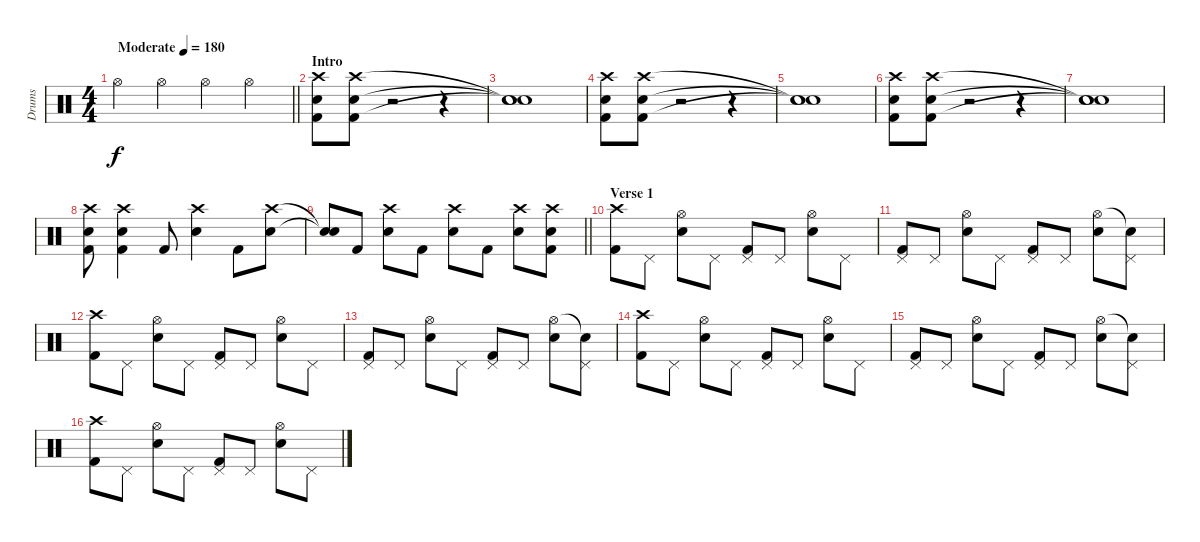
\track ("Drums" "Drums") {instrument percussion}
\staff {score}
\articulation defaults
\ts (4 4)
\tempo (180 "Moderate")
\clef neutral
\barLineRight lightlight
\ks c "Hi-Hat (open)".4{dy f} "Hi-Hat (open)".4 "Hi-Hat (open)".4 "Hi-Hat (open)".4
|
\section ("" "Intro")
("Crash high (hit)" "Snare (hit) 2" "Kick (hit) 2").8 ("Crash high (hit)" "Snare (hit) 2" "Kick (hit) 2").8 r.2 r.4 |
("Snare (hit)"{t} "Snare (hit)"{t} "Snare (hit)"{t}).1 |
("Crash high (hit)" "Snare (hit) 2" "Kick (hit) 2").8 ("Crash high (hit)" "Snare (hit) 2" "Kick (hit) 2").8 r.2 r.4 |
("Snare (hit)"{t} "Snare (hit)"{t} "Snare (hit)"{t}).1 |
("Crash high (hit)" "Snare (hit) 2" "Kick (hit) 2").8 ("Crash high (hit)" "Snare (hit) 2" "Kick (hit) 2").8 r.2 r.4 |
("Snare (hit)"{t} "Snare (hit)"{t} "Snare (hit)"{t}).1 |
("Crash high (hit)" "Snare (hit) 2" "Kick (hit) 2").8 ("Crash high (hit)" "Snare (hit) 2" "Kick (hit) 2").4 "Kick (hit) 2".8 ("Crash high (hit)" "Snare (hit) 2").4 "Kick (hit) 2".8 ("Crash high (hit)" "Snare (hit) 2").8 |
\barLineRight lightlight
("Snare (hit)"{t} "Snare (hit)"{t}).8 "Kick (hit) 2".8 ("Crash high (hit)" "Snare (hit) 2").8 "Kick (hit) 2".8 ("Crash high (hit)" "Snare (hit) 2").8 "Kick (hit) 2".8 ("Crash high (hit)" "Snare (hit) 2").8 ("Crash high (hit)" "Snare (hit) 2" "Kick (hit) 2").8 |
\section ("" "Verse 1")
("Crash high (hit)" "Kick (hit) 2").8 "Pedal Hi-Hat (hit)".8 ("Hi-Hat (open)" "Snare (hit) 2").8 "Pedal Hi-Hat (hit)".8 ("Pedal Hi-Hat (hit)" "Kick (hit) 2").8 "Pedal Hi-Hat (hit)".8 ("Hi-Hat (open)" "Snare (hit) 2").8 "Pedal Hi-Hat (hit)".8 |
("Pedal Hi-Hat (hit)" "Kick (hit) 2").8 "Pedal Hi-Hat (hit)".8 ("Hi-Hat (open)" "Snare (hit) 2").8 "Pedal Hi-Hat (hit)".8 ("Pedal Hi-Hat (hit)" "Kick (hit) 2").8 "Pedal Hi-Hat (hit)".8 ("Hi-Hat (open)" "Snare (hit) 2").8 ("Snare (hit)"{t} "Pedal Hi-Hat (hit)").8 |
("Crash high (hit)" "Kick (hit) 2").8 "Pedal Hi-Hat (hit)".8 ("Hi-Hat (open)" "Snare (hit) 2").8 "Pedal Hi-Hat (hit)".8 ("Pedal Hi-Hat (hit)" "Kick (hit) 2").8 "Pedal Hi-Hat (hit)".8 ("Hi-Hat (open)" "Snare (hit) 2").8 "Pedal Hi-Hat (hit)".8 |
("Pedal Hi-Hat (hit)" "Kick (hit) 2").8 "Pedal Hi-Hat (hit)".8 ("Hi-Hat (open)" "Snare (hit) 2").8 "Pedal Hi-Hat (hit)".8 ("Pedal Hi-Hat (hit)" "Kick (hit) 2").8 "Pedal Hi-Hat (hit)".8 ("Hi-Hat (open)" "Snare (hit) 2").8 ("Snare (hit)"{t} "Pedal Hi-Hat (hit)").8 |
("Crash high (hit)" "Kick (hit) 2").8 "Pedal Hi-Hat (hit)".8 ("Hi-Hat (open)" "Snare (hit) 2").8 "Pedal Hi-Hat (hit)".8 ("Pedal Hi-Hat (hit)" "Kick (hit) 2").8 "Pedal Hi-Hat (hit)".8 ("Hi-Hat (open)" "Snare (hit) 2").8 "Pedal Hi-Hat (hit)".8 |
("Pedal Hi-Hat (hit)" "Kick (hit) 2").8 "Pedal Hi-Hat (hit)".8 ("Hi-Hat (open)" "Snare (hit) 2").8 "Pedal Hi-Hat (hit)".8 ("Pedal Hi-Hat (hit)" "Kick (hit) 2").8 "Pedal Hi-Hat (hit)".8 ("Hi-Hat (open)" "Snare (hit) 2").8 ("Snare (hit)"{t} "Pedal Hi-Hat (hit)").8 |
("Crash high (hit)" "Kick (hit) 2").8 "Pedal Hi-Hat (hit)".8 ("Hi-Hat (open)" "Snare (hit) 2").8 "Pedal Hi-Hat (hit)".8 ("Pedal Hi-Hat (hit)" "Kick (hit) 2").8 "Pedal Hi-Hat (hit)".8 ("Hi-Hat (open)" "Snare (hit) 2").8 "Pedal Hi-Hat (hit)".8
